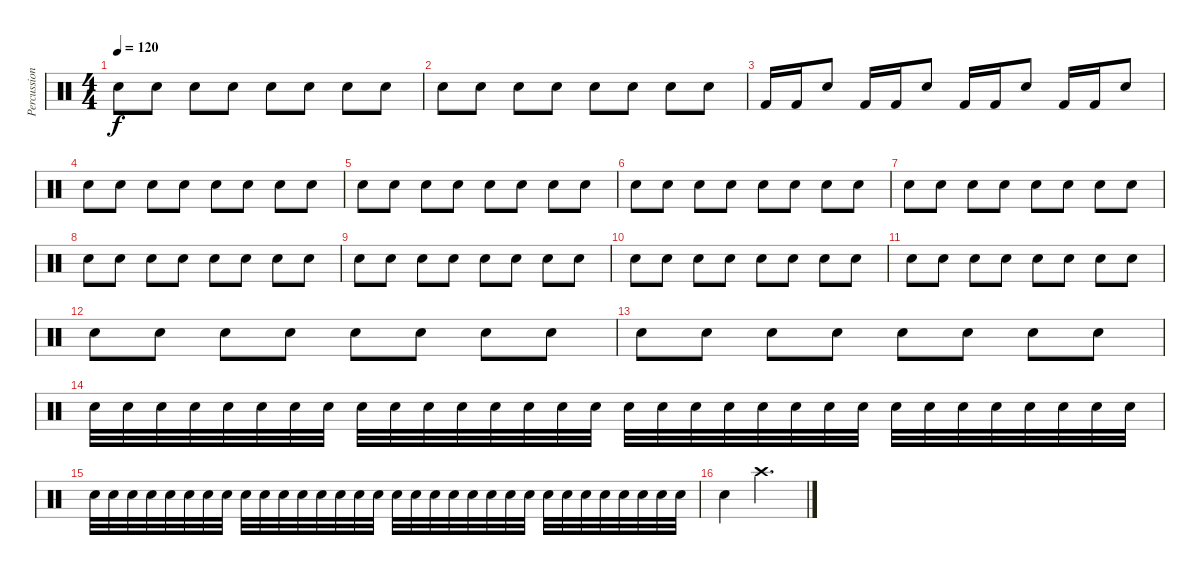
\track ("Percussion" "Percussion") {instrument percussion}
\staff {score}
\articulation defaults
\ts (4 4)
\tempo 120
\clef neutral
\ks c "Hand Clap (hit)".8{dy f} "Snare (hit) 2".8 "Hand Clap (hit)".8 "Snare (hit) 2".8 "Hand Clap (hit)".8 "Snare (hit) 2".8 "Hand Clap (hit)".8 "Snare (hit) 2".8
|
"Hand Clap (hit)".8 "Snare (hit) 2".8 "Hand Clap (hit)".8 "Snare (hit) 2".8 "Hand Clap (hit)".8 "Snare (hit) 2".8 "Hand Clap (hit)".8 "Snare (hit) 2".8 |
"Kick (hit) 2".16 "Kick (hit) 2".16 "Snare (hit) 2".8 "Kick (hit) 2".16 "Kick (hit) 2".16 "Snare (hit) 2".8 "Kick (hit) 2".16 "Kick (hit) 2".16 "Snare (hit) 2".8 "Kick (hit) 2".16 "Kick (hit) 2".16 "Snare (hit) 2".8 |
"Hand Clap (hit)".8 "Snare (hit) 2".8 "Hand Clap (hit)".8 "Snare (hit) 2".8 "Hand Clap (hit)".8 "Snare (hit) 2".8 "Hand Clap (hit)".8 "Snare (hit) 2".8 |
"Hand Clap (hit)".8 "Snare (hit) 2".8 "Hand Clap (hit)".8 "Snare (hit) 2".8 "Hand Clap (hit)".8 "Snare (hit) 2".8 "Hand Clap (hit)".8 "Snare (hit) 2".8 |
"Hand Clap (hit)".8 "Snare (hit) 2".8 "Hand Clap (hit)".8 "Snare (hit) 2".8 "Hand Clap (hit)".8 "Snare (hit) 2".8 "Hand Clap (hit)".8 "Snare (hit) 2".8 |
"Hand Clap (hit)".8 "Snare (hit) 2".8 "Hand Clap (hit)".8 "Snare (hit) 2".8 "Hand Clap (hit)".8 "Snare (hit) 2".8 "Hand Clap (hit)".8 "Snare (hit) 2".8 |
"Hand Clap (hit)".8 "Snare (hit) 2".8 "Hand Clap (hit)".8 "Snare (hit) 2".8 "Hand Clap (hit)".8 "Snare (hit) 2".8 "Hand Clap (hit)".8 "Snare (hit) 2".8 |
"Hand Clap (hit)".8 "Snare (hit) 2".8 "Hand Clap (hit)".8 "Snare (hit) 2".8 "Hand Clap (hit)".8 "Snare (hit) 2".8 "Hand Clap (hit)".8 "Snare (hit) 2".8 |
"Hand Clap (hit)".8 "Snare (hit) 2".8 "Hand Clap (hit)".8 "Snare (hit) 2".8 "Hand Clap (hit)".8 "Snare (hit) 2".8 "Hand Clap (hit)".8 "Snare (hit) 2".8 |
"Hand Clap (hit)".8 "Snare (hit) 2".8 "Hand Clap (hit)".8 "Snare (hit) 2".8 "Hand Clap (hit)".8 "Snare (hit) 2".8 "Hand Clap (hit)".8 "Snare (hit) 2".8 |
"Hand Clap (hit)".8 "Snare (hit) 2".8 "Hand Clap (hit)".8 "Snare (hit) 2".8 "Hand Clap (hit)".8 "Snare (hit) 2".8 "Hand Clap (hit)".8 "Snare (hit) 2".8 |
"Hand Clap (hit)".8 "Snare (hit) 2".8 "Hand Clap (hit)".8 "Snare (hit) 2".8 "Hand Clap (hit)".8 "Snare (hit) 2".8 "Hand Clap (hit)".8 "Snare (hit) 2".8 |
"Hand Clap (hit)".32 "Snare (hit) 2".32 "Hand Clap (hit)".32 "Snare (hit) 2".32 "Hand Clap (hit)".32 "Snare (hit) 2".32 "Hand Clap (hit)".32 "Snare (hit) 2".32 "Hand Clap (hit)".32 "Snare (hit) 2".32 "Hand Clap (hit)".32 "Snare (hit) 2".32 "Hand Clap (hit)".32 "Snare (hit) 2".32 "Hand Clap (hit)".32 "Snare (hit) 2".32 "Hand Clap (hit)".32 "Snare (hit) 2".32 "Hand Clap (hit)".32 "Snare (hit) 2".32 "Hand Clap (hit)".32 "Snare (hit) 2".32 "Hand Clap (hit)".32 "Snare (hit) 2".32 "Hand Clap (hit)".32 "Snare (hit) 2".32 "Hand Clap (hit)".32 "Snare (hit) 2".32 "Hand Clap (hit)".32 "Snare (hit) 2".32 "Hand Clap (hit)".32 "Snare (hit) 2".32 |
"Hand Clap (hit)".32 "Snare (hit) 2".32 "Hand Clap (hit)".32 "Snare (hit) 2".32 "Hand Clap (hit)".32 "Snare (hit) 2".32 "Hand Clap (hit)".32 "Snare (hit) 2".32 "Hand Clap (hit)".32 "Snare (hit) 2".32 "Hand Clap (hit)".32 "Snare (hit) 2".32 "Hand Clap (hit)".32 "Snare (hit) 2".32 "Hand Clap (hit)".32 "Snare (hit) 2".32 "Hand Clap (hit)".32 "Snare (hit) 2".32 "Hand Clap (hit)".32 "Snare (hit) 2".32 "Hand Clap (hit)".32 "Snare (hit) 2".32 "Hand Clap (hit)".32 "Snare (hit) 2".32 "Hand Clap (hit)".32 "Snare (hit) 2".32 "Hand Clap (hit)".32 "Snare (hit) 2".32 "Hand Clap (hit)".32 "Snare (hit) 2".32 "Hand Clap (hit)".32 "Snare (hit) 2".32 |
"Hand Clap (hit)".4 "Crash high (hit)".2{d}
